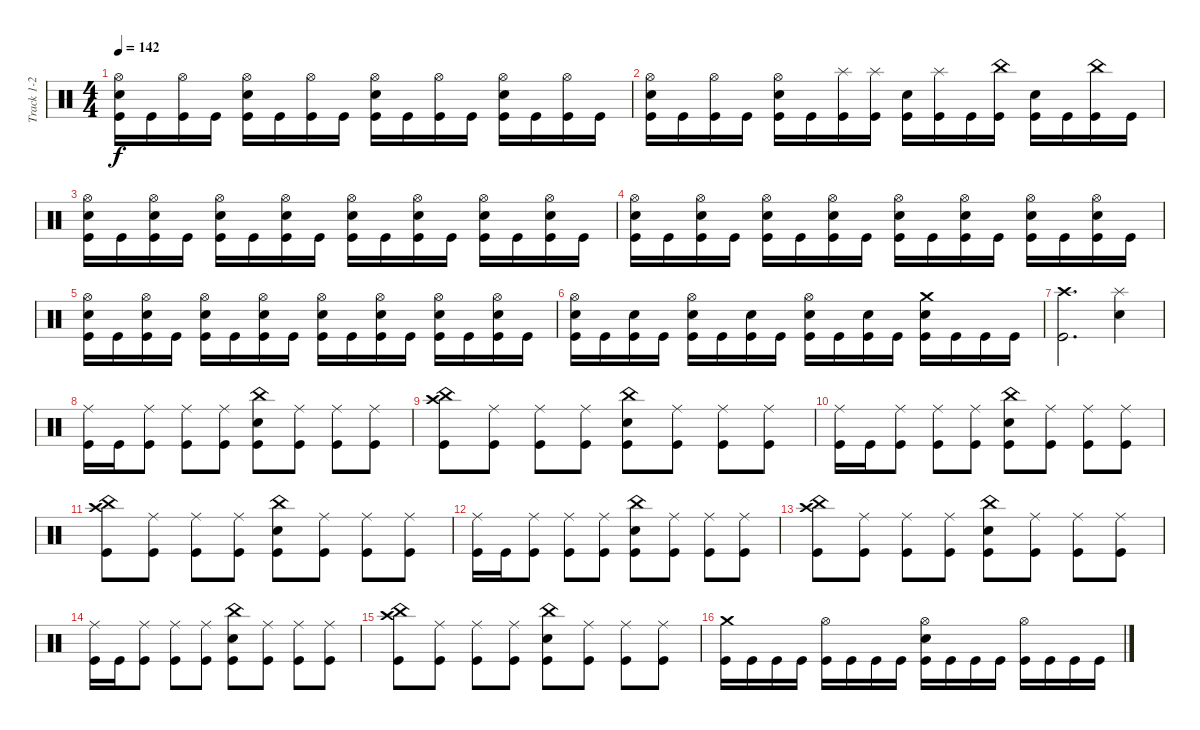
\track ("Track 1-2" "Track 1-2") {instrument percussion}
\staff {score}
\articulation defaults
\ts (4 4)
\tempo 142
\clef neutral
\ks c
("Hi-Hat (open)" "Electric Snare (hit)" "Kick (hit)").16{dy f} "Kick (hit)".16 ("Hi-Hat (open)" "Kick (hit)").16 "Kick (hit)".16 ("Hi-Hat (open)" "Electric Snare (hit)" "Kick (hit)").16 "Kick (hit)".16 ("Hi-Hat (open)" "Kick (hit)").16 "Kick (hit)".16 ("Hi-Hat (open)" "Electric Snare (hit)" "Kick (hit)").16 "Kick (hit)".16 ("Hi-Hat (open)" "Kick (hit)").16 "Kick (hit)".16 ("Hi-Hat (open)" "Electric Snare (hit)" "Kick (hit)").16 "Kick (hit)".16 ("Hi-Hat (open)" "Kick (hit)").16 "Kick (hit)".16 |
("Hi-Hat (open)" "Electric Snare (hit)" "Kick (hit)").16 "Kick (hit)".16 ("Hi-Hat (open)" "Kick (hit)").16 "Kick (hit)".16 ("Hi-Hat (open)" "Electric Snare (hit)" "Kick (hit)").16 "Kick (hit)".16 ("Splash (hit)" "Kick (hit)").16 ("Splash (hit)" "Kick (hit)").16 ("Electric Snare (hit)" "Kick (hit)").16 ("Splash (hit)" "Kick (hit)").16 "Kick (hit)".16 ("China (hit)" "Kick (hit)").16 ("Electric Snare (hit)" "Kick (hit)").16 "Kick (hit)".16 ("China (hit)" "Kick (hit)").16 "Kick (hit)".16 |
("Hi-Hat (open)" "Electric Snare (hit)" "Kick (hit)").16 "Kick (hit)".16 ("Hi-Hat (open)" "Electric Snare (hit)" "Kick (hit)").16 "Kick (hit)".16 ("Hi-Hat (open)" "Electric Snare (hit)" "Kick (hit)").16 "Kick (hit)".16 ("Hi-Hat (open)" "Electric Snare (hit)" "Kick (hit)").16 "Kick (hit)".16 ("Hi-Hat (open)" "Electric Snare (hit)" "Kick (hit)").16 "Kick (hit)".16 ("Hi-Hat (open)" "Electric Snare (hit)" "Kick (hit)").16 "Kick (hit)".16 ("Hi-Hat (open)" "Electric Snare (hit)" "Kick (hit)").16 "Kick (hit)".16 ("Hi-Hat (open)" "Electric Snare (hit)" "Kick (hit)").16 "Kick (hit)".16 |
("Hi-Hat (open)" "Electric Snare (hit)" "Kick (hit)").16 "Kick (hit)".16 ("Hi-Hat (open)" "Electric Snare (hit)" "Kick (hit)").16 "Kick (hit)".16 ("Hi-Hat (open)" "Electric Snare (hit)" "Kick (hit)").16 "Kick (hit)".16 ("Hi-Hat (open)" "Electric Snare (hit)" "Kick (hit)").16 "Kick (hit)".16 ("Hi-Hat (open)" "Electric Snare (hit)" "Kick (hit)").16 "Kick (hit)".16 ("Hi-Hat (open)" "Electric Snare (hit)" "Kick (hit)").16 "Kick (hit)".16 ("Hi-Hat (open)" "Electric Snare (hit)" "Kick (hit)").16 "Kick (hit)".16 ("Hi-Hat (open)" "Electric Snare (hit)" "Kick (hit)").16 "Kick (hit)".16 |
("Hi-Hat (open)" "Electric Snare (hit)" "Kick (hit)").16 "Kick (hit)".16 ("Hi-Hat (open)" "Electric Snare (hit)" "Kick (hit)").16 "Kick (hit)".16 ("Hi-Hat (open)" "Electric Snare (hit)" "Kick (hit)").16 "Kick (hit)".16 ("Hi-Hat (open)" "Electric Snare (hit)" "Kick (hit)").16 "Kick (hit)".16 ("Hi-Hat (open)" "Electric Snare (hit)" "Kick (hit)").16 "Kick (hit)".16 ("Hi-Hat (open)" "Electric Snare (hit)" "Kick (hit)").16 "Kick (hit)".16 ("Hi-Hat (open)" "Electric Snare (hit)" "Kick (hit)").16 "Kick (hit)".16 ("Hi-Hat (open)" "Electric Snare (hit)" "Kick (hit)").16 "Kick (hit)".16 |
("Hi-Hat (open)" "Electric Snare (hit)" "Kick (hit)").16 "Kick (hit)".16 ("Electric Snare (hit)" "Kick (hit)").16 "Kick (hit)".16 ("Hi-Hat (open)" "Electric Snare (hit)" "Kick (hit)").16 "Kick (hit)".16 ("Electric Snare (hit)" "Kick (hit)").16 "Kick (hit)".16 ("Hi-Hat (open)" "Electric Snare (hit)" "Kick (hit)").16 "Kick (hit)".16 ("Electric Snare (hit)" "Kick (hit)").16 "Kick (hit)".16 ("Crash medium (hit)" "Electric Snare (hit)" "Kick (hit)").16 "Kick (hit)".16 "Kick (hit)".16 "Kick (hit)".16 |
("Crash high (hit)" "Kick (hit)").2{d} ("Splash (hit)" "Electric Snare (hit)").4 |
("Ride (middle)" "Kick (hit)").16 "Kick (hit)".16 ("Ride (middle)" "Kick (hit)").8 ("Ride (middle)" "Kick (hit)").8 ("Ride (middle)" "Kick (hit)").8 ("China (hit)" "Electric Snare (hit)" "Kick (hit)").8 ("Ride (middle)" "Kick (hit)").8 ("Ride (middle)" "Kick (hit)").8 ("Ride (middle)" "Kick (hit)").8 |
("China (hit)" "Crash high (hit)" "Kick (hit)").8 ("Ride (middle)" "Kick (hit)").8 ("Ride (middle)" "Kick (hit)").8 ("Ride (middle)" "Kick (hit)").8 ("China (hit)" "Electric Snare (hit)" "Kick (hit)").8 ("Ride (middle)" "Kick (hit)").8 ("Ride (middle)" "Kick (hit)").8 ("Ride (middle)" "Kick (hit)").8 |
("Ride (middle)" "Kick (hit)").16 "Kick (hit)".16 ("Ride (middle)" "Kick (hit)").8 ("Ride (middle)" "Kick (hit)").8 ("Ride (middle)" "Kick (hit)").8 ("China (hit)" "Electric Snare (hit)" "Kick (hit)").8 ("Ride (middle)" "Kick (hit)").8 ("Ride (middle)" "Kick (hit)").8 ("Ride (middle)" "Kick (hit)").8 |
("China (hit)" "Crash high (hit)" "Kick (hit)").8 ("Ride (middle)" "Kick (hit)").8 ("Ride (middle)" "Kick (hit)").8 ("Ride (middle)" "Kick (hit)").8 ("China (hit)" "Electric Snare (hit)" "Kick (hit)").8 ("Ride (middle)" "Kick (hit)").8 ("Ride (middle)" "Kick (hit)").8 ("Ride (middle)" "Kick (hit)").8 |
("Ride (middle)" "Kick (hit)").16 "Kick (hit)".16 ("Ride (middle)" "Kick (hit)").8 ("Ride (middle)" "Kick (hit)").8 ("Ride (middle)" "Kick (hit)").8 ("China (hit)" "Electric Snare (hit)" "Kick (hit)").8 ("Ride (middle)" "Kick (hit)").8 ("Ride (middle)" "Kick (hit)").8 ("Ride (middle)" "Kick (hit)").8 |
("China (hit)" "Crash high (hit)" "Kick (hit)").8 ("Ride (middle)" "Kick (hit)").8 ("Ride (middle)" "Kick (hit)").8 ("Ride (middle)" "Kick (hit)").8 ("China (hit)" "Electric Snare (hit)" "Kick (hit)").8 ("Ride (middle)" "Kick (hit)").8 ("Ride (middle)" "Kick (hit)").8 ("Ride (middle)" "Kick (hit)").8 |
("Ride (middle)" "Kick (hit)").16 "Kick (hit)".16 ("Ride (middle)" "Kick (hit)").8 ("Ride (middle)" "Kick (hit)").8 ("Ride (middle)" "Kick (hit)").8 ("China (hit)" "Electric Snare (hit)" "Kick (hit)").8 ("Ride (middle)" "Kick (hit)").8 ("Ride (middle)" "Kick (hit)").8 ("Ride (middle)" "Kick (hit)").8 |
("China (hit)" "Crash high (hit)" "Kick (hit)").8 ("Ride (middle)" "Kick (hit)").8 ("Ride (middle)" "Kick (hit)").8 ("Ride (middle)" "Kick (hit)").8 ("China (hit)" "Electric Snare (hit)" "Kick (hit)").8 ("Ride (middle)" "Kick (hit)").8 ("Ride (middle)" "Kick (hit)").8 ("Ride (middle)" "Kick (hit)").8 |
("Crash medium (hit)" "Kick (hit)").16 "Kick (hit)".16 "Kick (hit)".16 "Kick (hit)".16 ("Hi-Hat (open)" "Kick (hit)").16 "Kick (hit)".16 "Kick (hit)".16 "Kick (hit)".16 ("Hi-Hat (open)" "Electric Snare (hit)" "Kick (hit)").16 "Kick (hit)".16 "Kick (hit)".16 "Kick (hit)".16 ("Hi-Hat (open)" "Kick (hit)").16 "Kick (hit)".16 "Kick (hit)".16 "Kick (hit)".16
